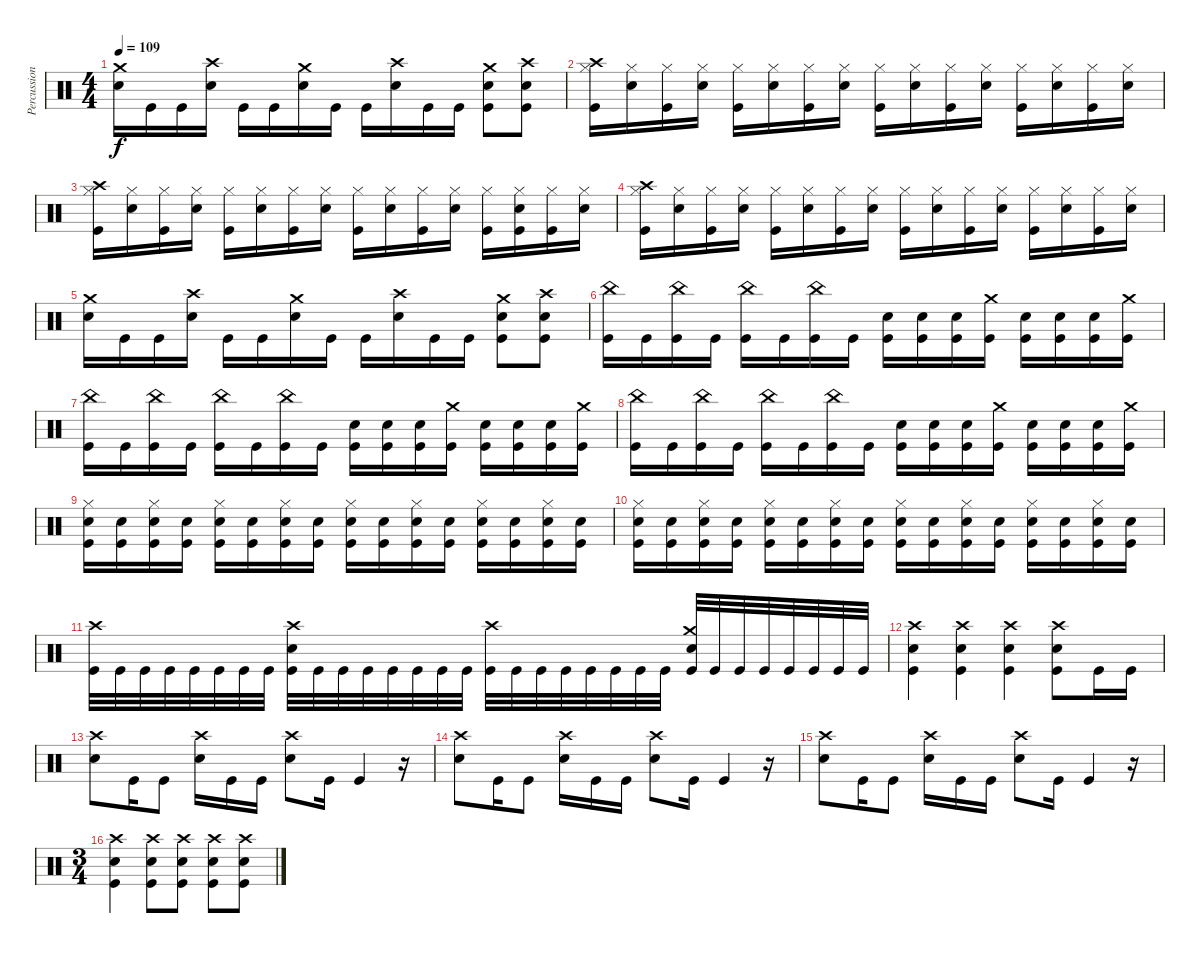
\track ("Percussions" "Percussion") {instrument percussion}
\staff {score}
\articulation defaults
\ts (4 4)
\tempo 109
\clef neutral
\ks c
("Electric Snare (hit)" "Crash medium (hit)").16{dy f} "Kick (hit)".16 "Kick (hit)".16 ("Electric Snare (hit)" "Crash high (hit)").16 "Kick (hit)".16 "Kick (hit)".16 ("Electric Snare (hit)" "Crash medium (hit)").16 "Kick (hit)".16 "Kick (hit)".16 ("Electric Snare (hit)" "Crash high (hit)").16 "Kick (hit)".16 "Kick (hit)".16 ("Kick (hit)" "Electric Snare (hit)" "Crash medium (hit)").8 ("Kick (hit)" "Electric Snare (hit)" "Crash high (hit)").8 |
("Kick (hit)" "Hi-Hat (closed)" "Crash high (hit)").16 ("Hi-Hat (closed)" "Electric Snare (hit)").16 ("Kick (hit)" "Hi-Hat (closed)").16 ("Hi-Hat (closed)" "Electric Snare (hit)").16 ("Kick (hit)" "Hi-Hat (closed)").16 ("Hi-Hat (closed)" "Electric Snare (hit)").16 ("Kick (hit)" "Hi-Hat (closed)").16 ("Hi-Hat (closed)" "Electric Snare (hit)").16 ("Kick (hit)" "Hi-Hat (closed)").16 ("Hi-Hat (closed)" "Electric Snare (hit)").16 ("Kick (hit)" "Hi-Hat (closed)").16 ("Hi-Hat (closed)" "Electric Snare (hit)").16 ("Kick (hit)" "Hi-Hat (closed)").16 ("Hi-Hat (closed)" "Electric Snare (hit)").16 ("Kick (hit)" "Hi-Hat (closed)").16 ("Hi-Hat (closed)" "Electric Snare (hit)").16 |
("Kick (hit)" "Hi-Hat (closed)" "Crash high (hit)").16 ("Hi-Hat (closed)" "Electric Snare (hit)").16 ("Kick (hit)" "Hi-Hat (closed)").16 ("Hi-Hat (closed)" "Electric Snare (hit)").16 ("Kick (hit)" "Hi-Hat (closed)").16 ("Hi-Hat (closed)" "Electric Snare (hit)").16 ("Kick (hit)" "Hi-Hat (closed)").16 ("Hi-Hat (closed)" "Electric Snare (hit)").16 ("Kick (hit)" "Hi-Hat (closed)").16 ("Hi-Hat (closed)" "Electric Snare (hit)").16 ("Kick (hit)" "Hi-Hat (closed)").16 ("Hi-Hat (closed)" "Electric Snare (hit)").16 ("Kick (hit)" "Hi-Hat (closed)").16 ("Kick (hit)" "Hi-Hat (closed)" "Electric Snare (hit)").16 ("Kick (hit)" "Hi-Hat (closed)").16 ("Hi-Hat (closed)" "Electric Snare (hit)").16 |
("Kick (hit)" "Hi-Hat (closed)" "Crash high (hit)").16 ("Hi-Hat (closed)" "Electric Snare (hit)").16 ("Kick (hit)" "Hi-Hat (closed)").16 ("Hi-Hat (closed)" "Electric Snare (hit)").16 ("Kick (hit)" "Hi-Hat (closed)").16 ("Hi-Hat (closed)" "Electric Snare (hit)").16 ("Kick (hit)" "Hi-Hat (closed)").16 ("Hi-Hat (closed)" "Electric Snare (hit)").16 ("Kick (hit)" "Hi-Hat (closed)").16 ("Hi-Hat (closed)" "Electric Snare (hit)").16 ("Kick (hit)" "Hi-Hat (closed)").16 ("Hi-Hat (closed)" "Electric Snare (hit)").16 ("Kick (hit)" "Hi-Hat (closed)").16 ("Hi-Hat (closed)" "Electric Snare (hit)").16 ("Kick (hit)" "Hi-Hat (closed)").16 ("Hi-Hat (closed)" "Electric Snare (hit)").16 |
("Electric Snare (hit)" "Crash medium (hit)").16 "Kick (hit)".16 "Kick (hit)".16 ("Electric Snare (hit)" "Crash high (hit)").16 "Kick (hit)".16 "Kick (hit)".16 ("Electric Snare (hit)" "Crash medium (hit)").16 "Kick (hit)".16 "Kick (hit)".16 ("Electric Snare (hit)" "Crash high (hit)").16 "Kick (hit)".16 "Kick (hit)".16 ("Kick (hit)" "Electric Snare (hit)" "Crash medium (hit)").8 ("Kick (hit)" "Electric Snare (hit)" "Crash high (hit)").8 |
("Kick (hit)" "China (hit)").16 "Kick (hit)".16 ("Kick (hit)" "China (hit)").16 "Kick (hit)".16 ("Kick (hit)" "China (hit)").16 "Kick (hit)".16 ("Kick (hit)" "China (hit)").16 "Kick (hit)".16 ("Kick (hit)" "Electric Snare (hit)").16 ("Kick (hit)" "Electric Snare (hit)").16 ("Kick (hit)" "Electric Snare (hit)").16 ("Kick (hit)" "Crash medium (hit)").16 ("Kick (hit)" "Electric Snare (hit)").16 ("Kick (hit)" "Electric Snare (hit)").16 ("Kick (hit)" "Electric Snare (hit)").16 ("Kick (hit)" "Crash medium (hit)").16 |
("Kick (hit)" "China (hit)").16 "Kick (hit)".16 ("Kick (hit)" "China (hit)").16 "Kick (hit)".16 ("Kick (hit)" "China (hit)").16 "Kick (hit)".16 ("Kick (hit)" "China (hit)").16 "Kick (hit)".16 ("Kick (hit)" "Electric Snare (hit)").16 ("Kick (hit)" "Electric Snare (hit)").16 ("Kick (hit)" "Electric Snare (hit)").16 ("Kick (hit)" "Crash medium (hit)").16 ("Kick (hit)" "Electric Snare (hit)").16 ("Kick (hit)" "Electric Snare (hit)").16 ("Kick (hit)" "Electric Snare (hit)").16 ("Kick (hit)" "Crash medium (hit)").16 |
("Kick (hit)" "China (hit)").16 "Kick (hit)".16 ("Kick (hit)" "China (hit)").16 "Kick (hit)".16 ("Kick (hit)" "China (hit)").16 "Kick (hit)".16 ("Kick (hit)" "China (hit)").16 "Kick (hit)".16 ("Kick (hit)" "Electric Snare (hit)").16 ("Kick (hit)" "Electric Snare (hit)").16 ("Kick (hit)" "Electric Snare (hit)").16 ("Kick (hit)" "Crash medium (hit)").16 ("Kick (hit)" "Electric Snare (hit)").16 ("Kick (hit)" "Electric Snare (hit)").16 ("Kick (hit)" "Electric Snare (hit)").16 ("Kick (hit)" "Crash medium (hit)").16 |
("Electric Snare (hit)" "Hi-Hat (closed)" "Kick (hit)").16 ("Electric Snare (hit)" "Kick (hit)").16 ("Electric Snare (hit)" "Hi-Hat (closed)" "Kick (hit)").16 ("Electric Snare (hit)" "Kick (hit)").16 ("Electric Snare (hit)" "Hi-Hat (closed)" "Kick (hit)").16 ("Electric Snare (hit)" "Kick (hit)").16 ("Electric Snare (hit)" "Hi-Hat (closed)" "Kick (hit)").16 ("Electric Snare (hit)" "Kick (hit)").16 ("Electric Snare (hit)" "Hi-Hat (closed)" "Kick (hit)").16 ("Electric Snare (hit)" "Kick (hit)").16 ("Electric Snare (hit)" "Hi-Hat (closed)" "Kick (hit)").16 ("Electric Snare (hit)" "Kick (hit)").16 ("Electric Snare (hit)" "Hi-Hat (closed)" "Kick (hit)").16 ("Electric Snare (hit)" "Kick (hit)").16 ("Electric Snare (hit)" "Hi-Hat (closed)" "Kick (hit)").16 ("Electric Snare (hit)" "Kick (hit)").16 |
("Electric Snare (hit)" "Hi-Hat (closed)" "Kick (hit)").16 ("Electric Snare (hit)" "Kick (hit)").16 ("Electric Snare (hit)" "Hi-Hat (closed)" "Kick (hit)").16 ("Electric Snare (hit)" "Kick (hit)").16 ("Electric Snare (hit)" "Hi-Hat (closed)" "Kick (hit)").16 ("Electric Snare (hit)" "Kick (hit)").16 ("Electric Snare (hit)" "Hi-Hat (closed)" "Kick (hit)").16 ("Electric Snare (hit)" "Kick (hit)").16 ("Electric Snare (hit)" "Hi-Hat (closed)" "Kick (hit)").16 ("Electric Snare (hit)" "Kick (hit)").16 ("Electric Snare (hit)" "Hi-Hat (closed)" "Kick (hit)").16 ("Electric Snare (hit)" "Kick (hit)").16 ("Electric Snare (hit)" "Hi-Hat (closed)" "Kick (hit)").16 ("Electric Snare (hit)" "Kick (hit)").16 ("Electric Snare (hit)" "Hi-Hat (closed)" "Kick (hit)").16 ("Electric Snare (hit)" "Kick (hit)").16 |
("Kick (hit)" "Crash high (hit)").32 "Kick (hit)".32 "Kick (hit)".32 "Kick (hit)".32 "Kick (hit)".32 "Kick (hit)".32 "Kick (hit)".32 "Kick (hit)".32 ("Kick (hit)" "Electric Snare (hit)" "Crash high (hit)").32 "Kick (hit)".32 "Kick (hit)".32 "Kick (hit)".32 "Kick (hit)".32 "Kick (hit)".32 "Kick (hit)".32 "Kick (hit)".32 ("Kick (hit)" "Crash high (hit)").32 "Kick (hit)".32 "Kick (hit)".32 "Kick (hit)".32 "Kick (hit)".32 "Kick (hit)".32 "Kick (hit)".32 "Kick (hit)".32 ("Kick (hit)" "Electric Snare (hit)" "Crash medium (hit)").32 "Kick (hit)".32 "Kick (hit)".32 "Kick (hit)".32 "Kick (hit)".32 "Kick (hit)".32 "Kick (hit)".32 "Kick (hit)".32 |
("Kick (hit)" "Electric Snare (hit)" "Crash high (hit)").4 ("Kick (hit)" "Electric Snare (hit)" "Crash high (hit)").4 ("Kick (hit)" "Electric Snare (hit)" "Crash high (hit)").4 ("Kick (hit)" "Electric Snare (hit)" "Crash high (hit)").8 "Kick (hit)".16 "Kick (hit)".16 |
("Electric Snare (hit)" "Crash high (hit)").8 "Kick (hit)".16 "Kick (hit)".8 ("Electric Snare (hit)" "Crash high (hit)").16 "Kick (hit)".16 "Kick (hit)".16 ("Electric Snare (hit)" "Crash high (hit)").8 "Kick (hit)".16 "Kick (hit)".4 r.16 |
("Electric Snare (hit)" "Crash high (hit)").8 "Kick (hit)".16 "Kick (hit)".8 ("Electric Snare (hit)" "Crash high (hit)").16 "Kick (hit)".16 "Kick (hit)".16 ("Electric Snare (hit)" "Crash high (hit)").8 "Kick (hit)".16 "Kick (hit)".4 r.16 |
("Electric Snare (hit)" "Crash high (hit)").8 "Kick (hit)".16 "Kick (hit)".8 ("Electric Snare (hit)" "Crash high (hit)").16 "Kick (hit)".16 "Kick (hit)".16 ("Electric Snare (hit)" "Crash high (hit)").8 "Kick (hit)".16 "Kick (hit)".4 r.16 |
\ts (3 4)
("Kick (hit)" "Electric Snare (hit)" "Crash high (hit)").4 ("Kick (hit)" "Electric Snare (hit)" "Crash high (hit)").8 ("Kick (hit)" "Electric Snare (hit)" "Crash high (hit)").8 ("Kick (hit)" "Electric Snare (hit)" "Crash high (hit)").8 ("Kick (hit)" "Electric Snare (hit)" "Crash high (hit)").8
